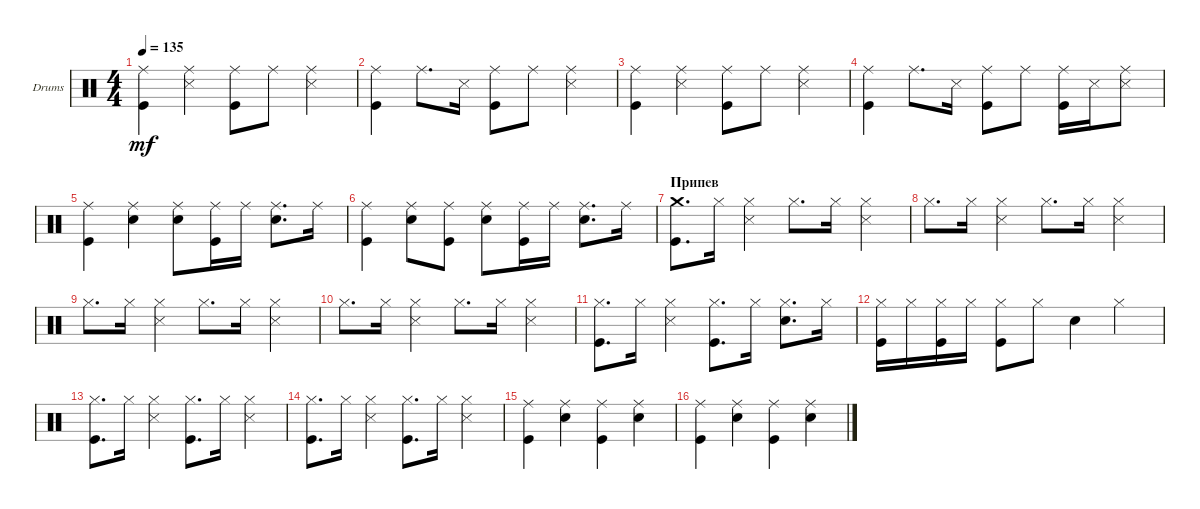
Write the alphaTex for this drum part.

\defaultSystemsLayout 4
\bracketExtendMode groupsimilarinstruments
\firstSystemTrackNameOrientation horizontal
\otherSystemsTrackNameOrientation horizontal
\track ("Drumkit" "Drums") {instrument percussion}
\staff {score}
\articulation defaults
\ts (4 4)
\tempo 135
\clef neutral
\scale
0.333333
\ks c
("Ride (middle)" "Kick (hit)").4{dy mf} ("Ride (middle)" "Snare (side stick) 3").4 ("Ride (middle)" "Kick (hit)").8 "Ride (middle)".8 ("Ride (middle)" "Snare (side stick) 3").4 |
\scale
0.333333 ("Ride (middle)" "Kick (hit)").4 "Ride (middle)".8{d} "Snare (side stick) 3".16 ("Ride (middle)" "Kick (hit)").8 "Ride (middle)".8 ("Ride (middle)" "Snare (side stick) 3").4 |
\scale
0.333333 ("Ride (middle)" "Kick (hit)").4 ("Ride (middle)" "Snare (side stick) 3").4 ("Ride (middle)" "Kick (hit)").8 "Ride (middle)".8 ("Ride (middle)" "Snare (side stick) 3").4 |
\scale
0.333333 ("Ride (middle)" "Kick (hit)").4 "Ride (middle)".8{d} "Snare (side stick) 3".16 ("Ride (middle)" "Kick (hit)").8 "Ride (middle)".8 ("Ride (middle)" "Kick (hit)").16 "Snare (side stick) 3".16 ("Ride (middle)" "Snare (side stick) 3").8 |
("Ride (middle)" "Kick (hit)").4 ("Ride (middle)" "Snare (hit) 2").4 ("Ride (middle)" "Snare (hit) 2").8 ("Ride (middle)" "Kick (hit)").16 "Ride (middle)".16 ("Ride (middle)" "Snare (hit) 2").8{d} "Ride (middle)".16 |
("Ride (middle)" "Kick (hit)").4 ("Ride (middle)" "Snare (hit) 2").8 ("Ride (middle)" "Kick (hit)").8 ("Ride (middle)" "Snare (hit) 2").8 ("Ride (middle)" "Kick (hit)").16 "Ride (middle)".16 ("Ride (middle)" "Snare (hit) 2").8{d} "Ride (middle)".16 |
\section ("" "Припев")
\scale
0.333333 ("Crash medium (hit)" "Kick (hit)").8{d} "Hi-Hat (closed)".16 ("Hi-Hat (closed)" "Snare (side stick) 3").4 "Hi-Hat (closed)".8{d} "Hi-Hat (closed)".16 ("Hi-Hat (closed)" "Snare (side stick) 3").4 |
\scale
0.333333 "Hi-Hat (closed)".8{d} "Hi-Hat (closed)".16 ("Hi-Hat (closed)" "Snare (side stick) 3").4 "Hi-Hat (closed)".8{d} "Hi-Hat (closed)".16 ("Hi-Hat (closed)" "Snare (side stick) 3").4 |
\scale
0.333333 "Hi-Hat (closed)".8{d} "Hi-Hat (closed)".16 ("Hi-Hat (closed)" "Snare (side stick) 3").4 "Hi-Hat (closed)".8{d} "Hi-Hat (closed)".16 ("Hi-Hat (closed)" "Snare (side stick) 3").4 |
\scale
0.333333 "Hi-Hat (closed)".8{d} "Hi-Hat (closed)".16 ("Hi-Hat (closed)" "Snare (side stick) 3").4 "Hi-Hat (closed)".8{d} "Hi-Hat (closed)".16 ("Hi-Hat (closed)" "Snare (side stick) 3").4 |
\scale
0.333333 ("Hi-Hat (closed)" "Kick (hit)").8{d} "Hi-Hat (closed)".16 ("Hi-Hat (closed)" "Snare (side stick) 3").4 ("Hi-Hat (closed)" "Kick (hit)").8{d} "Hi-Hat (closed)".16 ("Hi-Hat (closed)" "Snare (hit) 2").8{d} "Hi-Hat (closed)".16 |
("Hi-Hat (closed)" "Kick (hit)").16 "Hi-Hat (closed)".16 ("Hi-Hat (closed)" "Kick (hit)").16 "Hi-Hat (closed)".16 ("Hi-Hat (closed)" "Kick (hit)").8 "Hi-Hat (closed)".8 "Snare (hit) 2".4 "Hi-Hat (closed)".4 |
("Hi-Hat (closed)" "Kick (hit)").8{d} "Hi-Hat (closed)".16 ("Hi-Hat (closed)" "Snare (side stick) 3").4 ("Hi-Hat (closed)" "Kick (hit)").8{d} "Hi-Hat (closed)".16 ("Hi-Hat (closed)" "Snare (side stick) 3").4 |
("Hi-Hat (closed)" "Kick (hit)").8{d} "Hi-Hat (closed)".16 ("Hi-Hat (closed)" "Snare (side stick) 3").4 ("Hi-Hat (closed)" "Kick (hit)").8{d} "Hi-Hat (closed)".16 ("Hi-Hat (closed)" "Snare (side stick) 3").4 |
("Ride (middle)" "Kick (hit)").4 ("Ride (middle)" "Snare (hit) 2").4 ("Ride (middle)" "Kick (hit)").4 ("Ride (middle)" "Snare (hit) 2").4 |
("Ride (middle)" "Kick (hit)").4 ("Ride (middle)" "Snare (hit) 2").4 ("Ride (middle)" "Kick (hit)").4 ("Ride (middle)" "Snare (hit) 2").4
